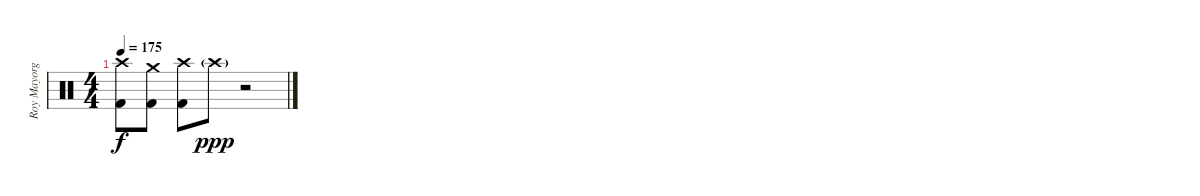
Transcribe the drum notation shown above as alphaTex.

\track ("Roy Mayorga" "Roy Mayorg") {instrument percussion}
\staff {score}
\articulation defaults
\ts (4 4)
\tempo 175
\clef neutral
\ks c
("Crash high (hit)" "Kick (hit) 2").8{dy f} ("Crash medium (hit)" "Kick (hit) 2").8 ("Crash high (hit)" "Kick (hit) 2").8 "Crash high (hit)"{g}.8{dy ppp} r.2
